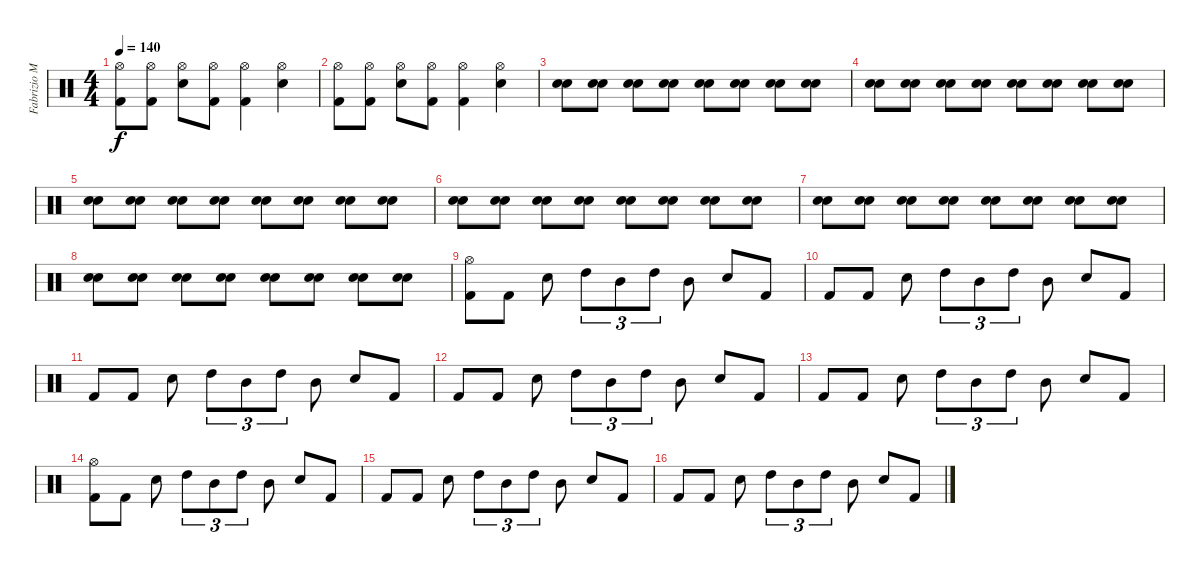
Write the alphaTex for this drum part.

\track ("Fabrizio Moretti" "Fabrizio M") {instrument percussion}
\staff {score}
\articulation defaults
\ts (4 4)
\tempo 140
\clef neutral
\ks c
("Kick (hit) 2" "Hi-Hat (open)").8{dy f} ("Kick (hit) 2" "Hi-Hat (open)").8 ("Electric Snare (hit)" "Hi-Hat (open)").8 ("Kick (hit) 2" "Hi-Hat (open)").8 ("Kick (hit) 2" "Hi-Hat (open)").4 ("Electric Snare (hit)" "Hi-Hat (open)").4 |
("Kick (hit) 2" "Hi-Hat (open)").8 ("Kick (hit) 2" "Hi-Hat (open)").8 ("Electric Snare (hit)" "Hi-Hat (open)").8 ("Kick (hit) 2" "Hi-Hat (open)").8 ("Kick (hit) 2" "Hi-Hat (open)").4 ("Electric Snare (hit)" "Hi-Hat (open)").4 |
("Electric Snare (hit)" "Electric Snare (hit)").8 ("Electric Snare (hit)" "Electric Snare (hit)").8 ("Electric Snare (hit)" "Electric Snare (hit)").8 ("Electric Snare (hit)" "Electric Snare (hit)").8 ("Electric Snare (hit)" "Electric Snare (hit)").8 ("Electric Snare (hit)" "Electric Snare (hit)").8 ("Electric Snare (hit)" "Electric Snare (hit)").8 ("Electric Snare (hit)" "Electric Snare (hit)").8 |
("Electric Snare (hit)" "Electric Snare (hit)").8 ("Electric Snare (hit)" "Electric Snare (hit)").8 ("Electric Snare (hit)" "Electric Snare (hit)").8 ("Electric Snare (hit)" "Electric Snare (hit)").8 ("Electric Snare (hit)" "Electric Snare (hit)").8 ("Electric Snare (hit)" "Electric Snare (hit)").8 ("Electric Snare (hit)" "Electric Snare (hit)").8 ("Electric Snare (hit)" "Electric Snare (hit)").8 |
("Electric Snare (hit)" "Electric Snare (hit)").8 ("Electric Snare (hit)" "Electric Snare (hit)").8 ("Electric Snare (hit)" "Electric Snare (hit)").8 ("Electric Snare (hit)" "Electric Snare (hit)").8 ("Electric Snare (hit)" "Electric Snare (hit)").8 ("Electric Snare (hit)" "Electric Snare (hit)").8 ("Electric Snare (hit)" "Electric Snare (hit)").8 ("Electric Snare (hit)" "Electric Snare (hit)").8 |
("Electric Snare (hit)" "Electric Snare (hit)").8 ("Electric Snare (hit)" "Electric Snare (hit)").8 ("Electric Snare (hit)" "Electric Snare (hit)").8 ("Electric Snare (hit)" "Electric Snare (hit)").8 ("Electric Snare (hit)" "Electric Snare (hit)").8 ("Electric Snare (hit)" "Electric Snare (hit)").8 ("Electric Snare (hit)" "Electric Snare (hit)").8 ("Electric Snare (hit)" "Electric Snare (hit)").8 |
("Electric Snare (hit)" "Electric Snare (hit)").8 ("Electric Snare (hit)" "Electric Snare (hit)").8 ("Electric Snare (hit)" "Electric Snare (hit)").8 ("Electric Snare (hit)" "Electric Snare (hit)").8 ("Electric Snare (hit)" "Electric Snare (hit)").8 ("Electric Snare (hit)" "Electric Snare (hit)").8 ("Electric Snare (hit)" "Electric Snare (hit)").8 ("Electric Snare (hit)" "Electric Snare (hit)").8 |
("Electric Snare (hit)" "Electric Snare (hit)").8 ("Electric Snare (hit)" "Electric Snare (hit)").8 ("Electric Snare (hit)" "Electric Snare (hit)").8 ("Electric Snare (hit)" "Electric Snare (hit)").8 ("Electric Snare (hit)" "Electric Snare (hit)").8 ("Electric Snare (hit)" "Electric Snare (hit)").8 ("Electric Snare (hit)" "Electric Snare (hit)").8 ("Electric Snare (hit)" "Electric Snare (hit)").8 |
("Kick (hit) 2" "Hi-Hat (open)").8 "Kick (hit) 2".8 "Electric Snare (hit)".8 "High Tom (hit)".8{tu (3 2)} "Mid Tom (hit)".8{tu (3 2)} "High Tom (hit)".8{tu (3 2)} "Mid Tom (hit)".8 "Electric Snare (hit)".8 "Kick (hit) 2".8 |
"Kick (hit) 2".8 "Kick (hit) 2".8 "Electric Snare (hit)".8 "High Tom (hit)".8{tu (3 2)} "Mid Tom (hit)".8{tu (3 2)} "High Tom (hit)".8{tu (3 2)} "Mid Tom (hit)".8 "Electric Snare (hit)".8 "Kick (hit) 2".8 |
"Kick (hit) 2".8 "Kick (hit) 2".8 "Electric Snare (hit)".8 "High Tom (hit)".8{tu (3 2)} "Mid Tom (hit)".8{tu (3 2)} "High Tom (hit)".8{tu (3 2)} "Mid Tom (hit)".8 "Electric Snare (hit)".8 "Kick (hit) 2".8 |
"Kick (hit) 2".8 "Kick (hit) 2".8 "Electric Snare (hit)".8 "High Tom (hit)".8{tu (3 2)} "Mid Tom (hit)".8{tu (3 2)} "High Tom (hit)".8{tu (3 2)} "Mid Tom (hit)".8 "Electric Snare (hit)".8 "Kick (hit) 2".8 |
"Kick (hit) 2".8 "Kick (hit) 2".8 "Electric Snare (hit)".8 "High Tom (hit)".8{tu (3 2)} "Mid Tom (hit)".8{tu (3 2)} "High Tom (hit)".8{tu (3 2)} "Mid Tom (hit)".8 "Electric Snare (hit)".8 "Kick (hit) 2".8 |
("Kick (hit) 2" "Hi-Hat (open)").8 "Kick (hit) 2".8 "Electric Snare (hit)".8 "High Tom (hit)".8{tu (3 2)} "Mid Tom (hit)".8{tu (3 2)} "High Tom (hit)".8{tu (3 2)} "Mid Tom (hit)".8 "Electric Snare (hit)".8 "Kick (hit) 2".8 |
"Kick (hit) 2".8 "Kick (hit) 2".8 "Electric Snare (hit)".8 "High Tom (hit)".8{tu (3 2)} "Mid Tom (hit)".8{tu (3 2)} "High Tom (hit)".8{tu (3 2)} "Mid Tom (hit)".8 "Electric Snare (hit)".8 "Kick (hit) 2".8 |
"Kick (hit) 2".8 "Kick (hit) 2".8 "Electric Snare (hit)".8 "High Tom (hit)".8{tu (3 2)} "Mid Tom (hit)".8{tu (3 2)} "High Tom (hit)".8{tu (3 2)} "Mid Tom (hit)".8 "Electric Snare (hit)".8 "Kick (hit) 2".8
